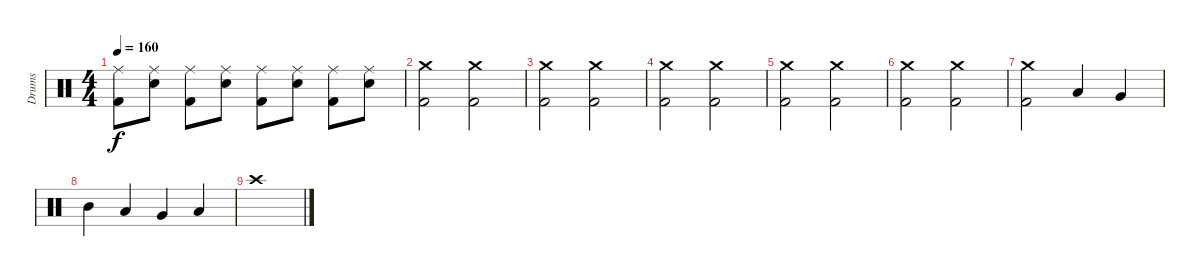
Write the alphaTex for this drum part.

\track ("Drums" "Drums") {instrument percussion}
\staff {score}
\articulation defaults
\ts (4 4)
\tempo 160
\clef neutral
\ks c
("Ride (middle)" "Kick (hit) 2").8{dy f} ("Ride (middle)" "Electric Snare (hit)").8 ("Ride (middle)" "Kick (hit) 2").8 ("Ride (middle)" "Electric Snare (hit)").8 ("Ride (middle)" "Kick (hit) 2").8 ("Ride (middle)" "Electric Snare (hit)").8 ("Ride (middle)" "Kick (hit) 2").8 ("Ride (middle)" "Electric Snare (hit)").8 |
("Crash medium (hit)" "Kick (hit) 2").2 ("Crash medium (hit)" "Kick (hit) 2").2 |
("Crash medium (hit)" "Kick (hit) 2").2 ("Crash medium (hit)" "Kick (hit) 2").2 |
("Crash medium (hit)" "Kick (hit) 2").2 ("Crash medium (hit)" "Kick (hit) 2").2 |
("Crash medium (hit)" "Kick (hit) 2").2 ("Crash medium (hit)" "Kick (hit) 2").2 |
("Crash medium (hit)" "Kick (hit) 2").2 ("Crash medium (hit)" "Kick (hit) 2").2 |
("Crash medium (hit)" "Kick (hit) 2").2 "Low Floor Tom (hit)".4 "Very Low Tom (hit)".4 |
"Mid Tom (hit)".4 "Low Tom (hit)".4 "Very Low Tom (hit)".4 "Low Floor Tom (hit)".4 |
"Crash high (hit)".1
